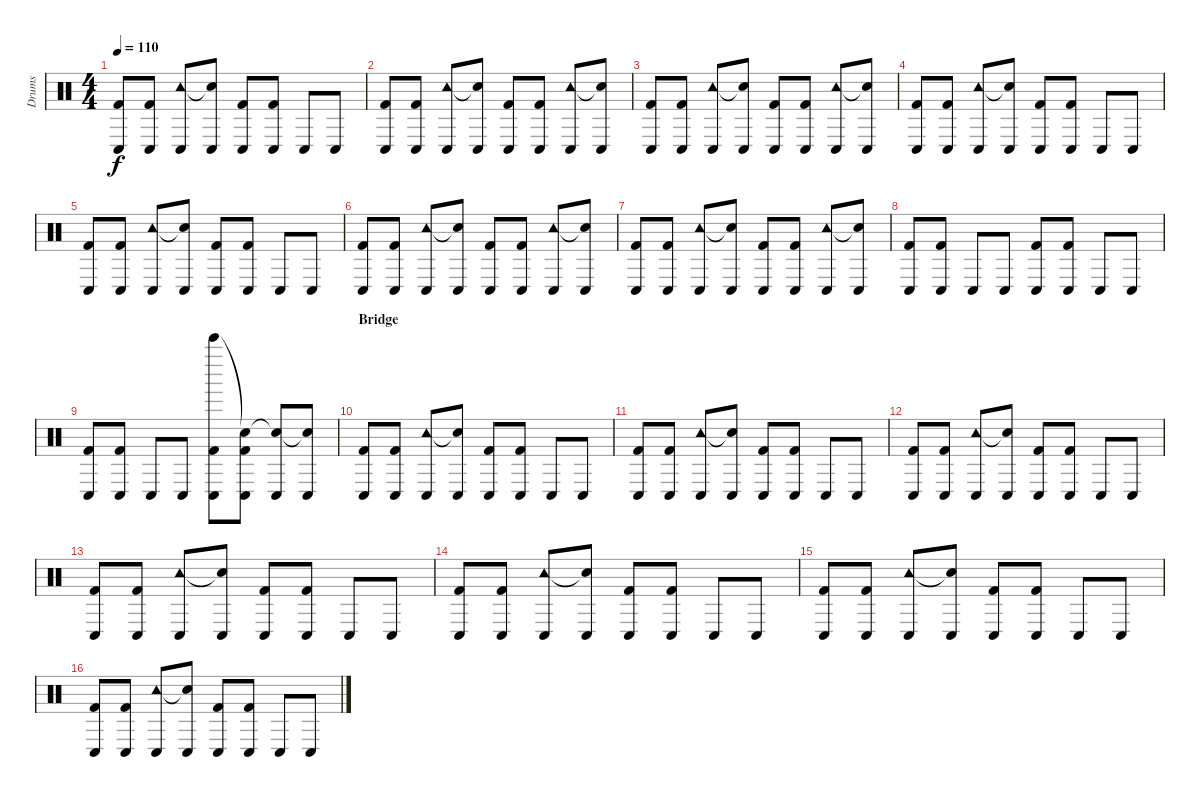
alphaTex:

\track ("Drums" "Drums") {instrument percussion}
\staff {score}
\articulation defaults
\ts (4 4)
\tempo 110
\clef neutral
\ks c
("Conga low (hit)" "Kick (hit) 2").8{dy f} ("Conga low (hit)" "Kick (hit) 2").8 ("Tambourine (hit)" "Conga low (hit)").8 ("Snare (hit)"{t} "Conga low (hit)").8 ("Conga low (hit)" "Kick (hit) 2").8 ("Conga low (hit)" "Kick (hit) 2").8 "Conga low (hit)".8 "Conga low (hit)".8 |
("Conga low (hit)" "Kick (hit) 2").8 ("Conga low (hit)" "Kick (hit) 2").8 ("Tambourine (hit)" "Conga low (hit)").8 ("Snare (hit)"{t} "Conga low (hit)").8 ("Conga low (hit)" "Kick (hit) 2").8 ("Conga low (hit)" "Kick (hit) 2").8 ("Tambourine (hit)" "Conga low (hit)").8 ("Snare (hit)"{t} "Conga low (hit)").8 |
("Conga low (hit)" "Kick (hit) 2").8 ("Conga low (hit)" "Kick (hit) 2").8 ("Tambourine (hit)" "Conga low (hit)").8 ("Snare (hit)"{t} "Conga low (hit)").8 ("Conga low (hit)" "Kick (hit) 2").8 ("Conga low (hit)" "Kick (hit) 2").8 ("Tambourine (hit)" "Conga low (hit)").8 ("Snare (hit)"{t} "Conga low (hit)").8 |
("Conga low (hit)" "Kick (hit) 2").8 ("Conga low (hit)" "Kick (hit) 2").8 ("Tambourine (hit)" "Conga low (hit)").8 ("Snare (hit)"{t} "Conga low (hit)").8 ("Conga low (hit)" "Kick (hit) 2").8 ("Conga low (hit)" "Kick (hit) 2").8 "Conga low (hit)".8 "Conga low (hit)".8 |
("Conga low (hit)" "Kick (hit) 2").8 ("Conga low (hit)" "Kick (hit) 2").8 ("Tambourine (hit)" "Conga low (hit)").8 ("Snare (hit)"{t} "Conga low (hit)").8 ("Conga low (hit)" "Kick (hit) 2").8 ("Conga low (hit)" "Kick (hit) 2").8 "Conga low (hit)".8 "Conga low (hit)".8 |
("Conga low (hit)" "Kick (hit) 2").8 ("Conga low (hit)" "Kick (hit) 2").8 ("Tambourine (hit)" "Conga low (hit)").8 ("Snare (hit)"{t} "Conga low (hit)").8 ("Conga low (hit)" "Kick (hit) 2").8 ("Conga low (hit)" "Kick (hit) 2").8 ("Tambourine (hit)" "Conga low (hit)").8 ("Snare (hit)"{t} "Conga low (hit)").8 |
("Conga low (hit)" "Kick (hit) 2").8 ("Conga low (hit)" "Kick (hit) 2").8 ("Tambourine (hit)" "Conga low (hit)").8 ("Snare (hit)"{t} "Conga low (hit)").8 ("Conga low (hit)" "Kick (hit) 2").8 ("Conga low (hit)" "Kick (hit) 2").8 ("Tambourine (hit)" "Conga low (hit)").8 ("Snare (hit)"{t} "Conga low (hit)").8 |
("Conga low (hit)" "Kick (hit) 2").8 ("Conga low (hit)" "Kick (hit) 2").8 "Conga low (hit)".8 "Conga low (hit)".8 ("Conga low (hit)" "Kick (hit) 2").8 ("Conga low (hit)" "Kick (hit) 2").8 "Conga low (hit)".8 "Conga low (hit)".8 |
("Conga low (hit)" "Kick (hit) 2").8 ("Conga low (hit)" "Kick (hit) 2").8 "Conga low (hit)".8 "Conga low (hit)".8 ("Bell Tree (hit)" "Conga low (hit)" "Kick (hit) 2").8 ("Snare (hit)"{t} "Conga low (hit)" "Kick (hit) 2").8 ("Snare (hit)"{t} "Conga low (hit)").8 ("Snare (hit)"{t} "Conga low (hit)").8 |
\section ("" "Bridge")
("Conga low (hit)" "Kick (hit) 2").8 ("Conga low (hit)" "Kick (hit) 2").8 ("Tambourine (hit)" "Conga low (hit)").8 ("Snare (hit)"{t} "Conga low (hit)").8 ("Conga low (hit)" "Kick (hit) 2").8 ("Conga low (hit)" "Kick (hit) 2").8 "Conga low (hit)".8 "Conga low (hit)".8 |
("Conga low (hit)" "Kick (hit) 2").8 ("Conga low (hit)" "Kick (hit) 2").8 ("Tambourine (hit)" "Conga low (hit)").8 ("Snare (hit)"{t} "Conga low (hit)").8 ("Conga low (hit)" "Kick (hit) 2").8 ("Conga low (hit)" "Kick (hit) 2").8 "Conga low (hit)".8 "Conga low (hit)".8 |
("Conga low (hit)" "Kick (hit) 2").8 ("Conga low (hit)" "Kick (hit) 2").8 ("Tambourine (hit)" "Conga low (hit)").8 ("Snare (hit)"{t} "Conga low (hit)").8 ("Conga low (hit)" "Kick (hit) 2").8 ("Conga low (hit)" "Kick (hit) 2").8 "Conga low (hit)".8 "Conga low (hit)".8 |
("Conga low (hit)" "Kick (hit) 2").8 ("Conga low (hit)" "Kick (hit) 2").8 ("Tambourine (hit)" "Conga low (hit)").8 ("Snare (hit)"{t} "Conga low (hit)").8 ("Conga low (hit)" "Kick (hit) 2").8 ("Conga low (hit)" "Kick (hit) 2").8 "Conga low (hit)".8 "Conga low (hit)".8 |
("Conga low (hit)" "Kick (hit) 2").8 ("Conga low (hit)" "Kick (hit) 2").8 ("Tambourine (hit)" "Conga low (hit)").8 ("Snare (hit)"{t} "Conga low (hit)").8 ("Conga low (hit)" "Kick (hit) 2").8 ("Conga low (hit)" "Kick (hit) 2").8 "Conga low (hit)".8 "Conga low (hit)".8 |
("Conga low (hit)" "Kick (hit) 2").8 ("Conga low (hit)" "Kick (hit) 2").8 ("Tambourine (hit)" "Conga low (hit)").8 ("Snare (hit)"{t} "Conga low (hit)").8 ("Conga low (hit)" "Kick (hit) 2").8 ("Conga low (hit)" "Kick (hit) 2").8 "Conga low (hit)".8 "Conga low (hit)".8 |
("Conga low (hit)" "Kick (hit) 2").8 ("Conga low (hit)" "Kick (hit) 2").8 ("Tambourine (hit)" "Conga low (hit)").8 ("Snare (hit)"{t} "Conga low (hit)").8 ("Conga low (hit)" "Kick (hit) 2").8 ("Conga low (hit)" "Kick (hit) 2").8 "Conga low (hit)".8 "Conga low (hit)".8
